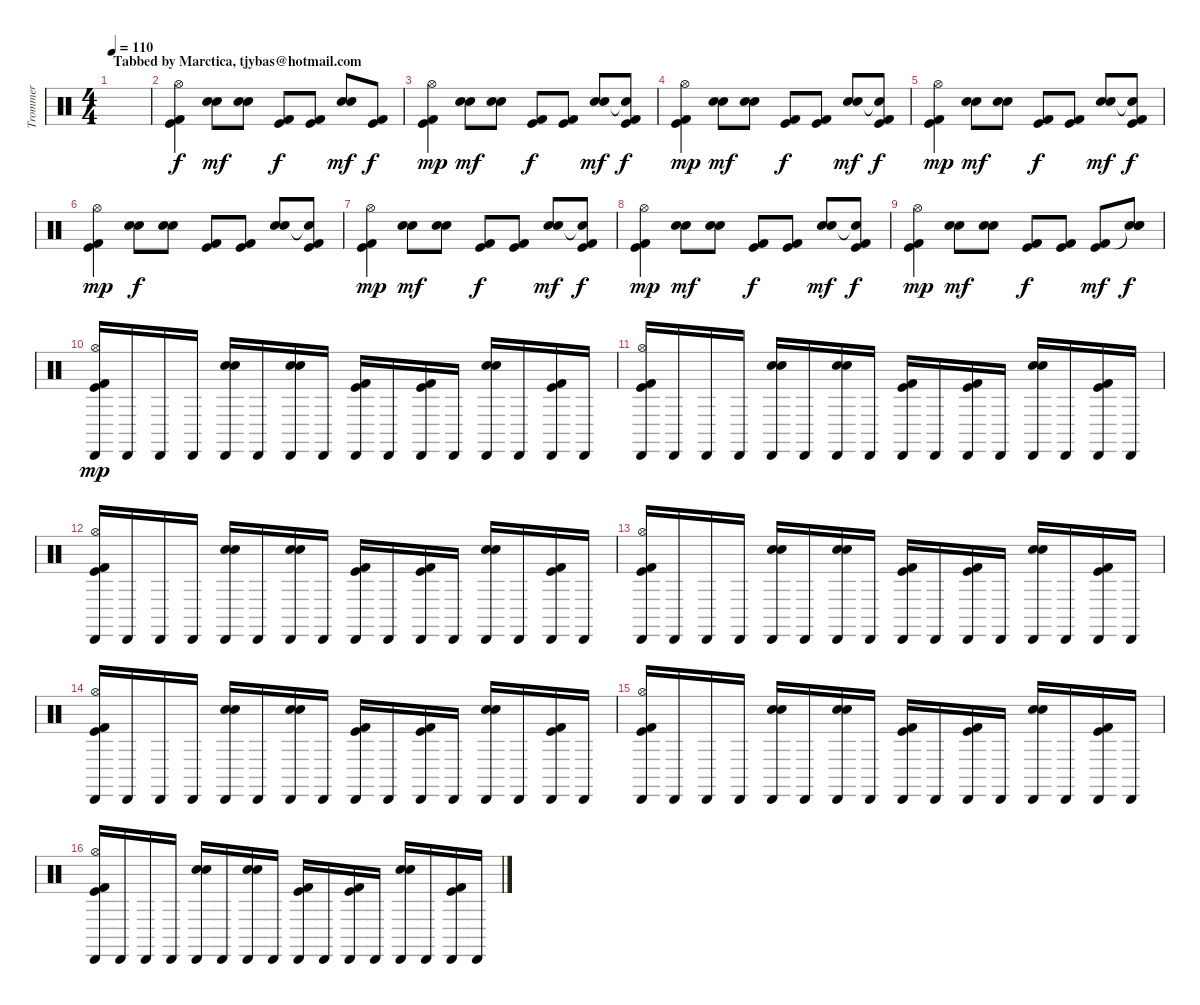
\track ("Trommer" "Trommer") {instrument percussion}
\staff {score}
\articulation defaults
\ts (4 4)
\section ("" "Tabbed by Marctica, tjybas@hotmail.com")
\tempo 110
\clef neutral
\ks c
|
("Hi-Hat (open)" "Kick (hit)" "Kick (hit) 2").4 ("Electric Snare (hit)" "Snare (hit) 2").8{dy mf} ("Snare (hit) 2" "Electric Snare (hit)").8 ("Kick (hit) 2" "Kick (hit)").8{dy f} ("Kick (hit)" "Kick (hit) 2").8 ("Snare (hit) 2" "Electric Snare (hit)").8{dy mf} ("Kick (hit)" "Kick (hit) 2").8{dy f} |
("Hi-Hat (open)" "Kick (hit)" "Kick (hit) 2").4{dy mp} ("Electric Snare (hit)" "Snare (hit) 2").8{dy mf} ("Snare (hit) 2" "Electric Snare (hit)").8 ("Kick (hit) 2" "Kick (hit)").8{dy f} ("Kick (hit)" "Kick (hit) 2").8 ("Snare (hit) 2" "Electric Snare (hit)").8{dy mf} ("Snare (hit)"{t} "Kick (hit)" "Kick (hit) 2").8{dy f} |
("Hi-Hat (open)" "Kick (hit)" "Kick (hit) 2").4{dy mp} ("Electric Snare (hit)" "Snare (hit) 2").8{dy mf} ("Snare (hit) 2" "Electric Snare (hit)").8 ("Kick (hit) 2" "Kick (hit)").8{dy f} ("Kick (hit)" "Kick (hit) 2").8 ("Snare (hit) 2" "Electric Snare (hit)").8{dy mf} ("Snare (hit)"{t} "Kick (hit)" "Kick (hit) 2").8{dy f} |
("Hi-Hat (open)" "Kick (hit)" "Kick (hit) 2").4{dy mp} ("Electric Snare (hit)" "Snare (hit) 2").8{dy mf} ("Snare (hit) 2" "Electric Snare (hit)").8 ("Kick (hit) 2" "Kick (hit)").8{dy f} ("Kick (hit)" "Kick (hit) 2").8 ("Snare (hit) 2" "Electric Snare (hit)").8{dy mf} ("Snare (hit)"{t} "Kick (hit)" "Kick (hit) 2").8{dy f} |
("Hi-Hat (open)" "Kick (hit)" "Kick (hit) 2").4{dy mp} ("Electric Snare (hit)" "Snare (hit) 2").8{dy f} ("Snare (hit) 2" "Electric Snare (hit)").8 ("Kick (hit) 2" "Kick (hit)").8 ("Kick (hit)" "Kick (hit) 2").8 ("Snare (hit) 2" "Electric Snare (hit)").8 ("Snare (hit)"{t} "Kick (hit)" "Kick (hit) 2").8 |
("Hi-Hat (open)" "Kick (hit)" "Kick (hit) 2").4{dy mp} ("Electric Snare (hit)" "Snare (hit) 2").8{dy mf} ("Snare (hit) 2" "Electric Snare (hit)").8 ("Kick (hit) 2" "Kick (hit)").8{dy f} ("Kick (hit)" "Kick (hit) 2").8 ("Snare (hit) 2" "Electric Snare (hit)").8{dy mf} ("Snare (hit)"{t} "Kick (hit)" "Kick (hit) 2").8{dy f} |
("Hi-Hat (open)" "Kick (hit)" "Kick (hit) 2").4{dy mp} ("Electric Snare (hit)" "Snare (hit) 2").8{dy mf} ("Snare (hit) 2" "Electric Snare (hit)").8 ("Kick (hit) 2" "Kick (hit)").8{dy f} ("Kick (hit)" "Kick (hit) 2").8 ("Snare (hit) 2" "Electric Snare (hit)").8{dy mf} ("Snare (hit)"{t} "Kick (hit)" "Kick (hit) 2").8{dy f} |
("Hi-Hat (open)" "Kick (hit)" "Kick (hit) 2").4{dy mp} ("Electric Snare (hit)" "Snare (hit) 2").8{dy mf} ("Snare (hit) 2" "Electric Snare (hit)").8 ("Kick (hit) 2" "Kick (hit)").8{dy f} ("Kick (hit)" "Kick (hit) 2").8 ("Kick (hit) 2" "Kick (hit)").8{dy mf} ("Snare (hit)"{t} "Snare (hit) 2" "Electric Snare (hit)").8{dy f} |
("Cabasa (hit)" "Hi-Hat (open)" "Kick (hit)" "Kick (hit) 2").16{dy mp} "Cabasa (hit)".16 "Cabasa (hit)".16 "Cabasa (hit)".16 ("Cabasa (hit)" "Snare (hit) 2" "Electric Snare (hit)").16 "Cabasa (hit)".16 ("Cabasa (hit)" "Snare (hit) 2" "Electric Snare (hit)").16 "Cabasa (hit)".16 ("Cabasa (hit)" "Kick (hit)" "Kick (hit) 2").16 "Cabasa (hit)".16 ("Cabasa (hit)" "Kick (hit) 2" "Kick (hit)").16 "Cabasa (hit)".16 ("Cabasa (hit)" "Snare (hit) 2" "Electric Snare (hit)").16 "Cabasa (hit)".16 ("Cabasa (hit)" "Kick (hit) 2" "Kick (hit)").16 "Cabasa (hit)".16 |
("Cabasa (hit)" "Hi-Hat (open)" "Kick (hit)" "Kick (hit) 2").16 "Cabasa (hit)".16 "Cabasa (hit)".16 "Cabasa (hit)".16 ("Cabasa (hit)" "Snare (hit) 2" "Electric Snare (hit)").16 "Cabasa (hit)".16 ("Cabasa (hit)" "Snare (hit) 2" "Electric Snare (hit)").16 "Cabasa (hit)".16 ("Cabasa (hit)" "Kick (hit)" "Kick (hit) 2").16 "Cabasa (hit)".16 ("Cabasa (hit)" "Kick (hit) 2" "Kick (hit)").16 "Cabasa (hit)".16 ("Cabasa (hit)" "Snare (hit) 2" "Electric Snare (hit)").16 "Cabasa (hit)".16 ("Cabasa (hit)" "Kick (hit) 2" "Kick (hit)").16 "Cabasa (hit)".16 |
("Cabasa (hit)" "Hi-Hat (open)" "Kick (hit)" "Kick (hit) 2").16 "Cabasa (hit)".16 "Cabasa (hit)".16 "Cabasa (hit)".16 ("Cabasa (hit)" "Snare (hit) 2" "Electric Snare (hit)").16 "Cabasa (hit)".16 ("Cabasa (hit)" "Snare (hit) 2" "Electric Snare (hit)").16 "Cabasa (hit)".16 ("Cabasa (hit)" "Kick (hit)" "Kick (hit) 2").16 "Cabasa (hit)".16 ("Cabasa (hit)" "Kick (hit) 2" "Kick (hit)").16 "Cabasa (hit)".16 ("Cabasa (hit)" "Snare (hit) 2" "Electric Snare (hit)").16 "Cabasa (hit)".16 ("Cabasa (hit)" "Kick (hit) 2" "Kick (hit)").16 "Cabasa (hit)".16 |
("Cabasa (hit)" "Hi-Hat (open)" "Kick (hit)" "Kick (hit) 2").16 "Cabasa (hit)".16 "Cabasa (hit)".16 "Cabasa (hit)".16 ("Cabasa (hit)" "Snare (hit) 2" "Electric Snare (hit)").16 "Cabasa (hit)".16 ("Cabasa (hit)" "Snare (hit) 2" "Electric Snare (hit)").16 "Cabasa (hit)".16 ("Cabasa (hit)" "Kick (hit)" "Kick (hit) 2").16 "Cabasa (hit)".16 ("Cabasa (hit)" "Kick (hit) 2" "Kick (hit)").16 "Cabasa (hit)".16 ("Cabasa (hit)" "Snare (hit) 2" "Electric Snare (hit)").16 "Cabasa (hit)".16 ("Cabasa (hit)" "Kick (hit) 2" "Kick (hit)").16 "Cabasa (hit)".16 |
("Cabasa (hit)" "Hi-Hat (open)" "Kick (hit)" "Kick (hit) 2").16 "Cabasa (hit)".16 "Cabasa (hit)".16 "Cabasa (hit)".16 ("Cabasa (hit)" "Snare (hit) 2" "Electric Snare (hit)").16 "Cabasa (hit)".16 ("Cabasa (hit)" "Snare (hit) 2" "Electric Snare (hit)").16 "Cabasa (hit)".16 ("Cabasa (hit)" "Kick (hit)" "Kick (hit) 2").16 "Cabasa (hit)".16 ("Cabasa (hit)" "Kick (hit) 2" "Kick (hit)").16 "Cabasa (hit)".16 ("Cabasa (hit)" "Snare (hit) 2" "Electric Snare (hit)").16 "Cabasa (hit)".16 ("Cabasa (hit)" "Kick (hit) 2" "Kick (hit)").16 "Cabasa (hit)".16 |
("Cabasa (hit)" "Hi-Hat (open)" "Kick (hit)" "Kick (hit) 2").16 "Cabasa (hit)".16 "Cabasa (hit)".16 "Cabasa (hit)".16 ("Cabasa (hit)" "Snare (hit) 2" "Electric Snare (hit)").16 "Cabasa (hit)".16 ("Cabasa (hit)" "Snare (hit) 2" "Electric Snare (hit)").16 "Cabasa (hit)".16 ("Cabasa (hit)" "Kick (hit)" "Kick (hit) 2").16 "Cabasa (hit)".16 ("Cabasa (hit)" "Kick (hit) 2" "Kick (hit)").16 "Cabasa (hit)".16 ("Cabasa (hit)" "Snare (hit) 2" "Electric Snare (hit)").16 "Cabasa (hit)".16 ("Cabasa (hit)" "Kick (hit) 2" "Kick (hit)").16 "Cabasa (hit)".16 |
("Cabasa (hit)" "Hi-Hat (open)" "Kick (hit)" "Kick (hit) 2").16 "Cabasa (hit)".16 "Cabasa (hit)".16 "Cabasa (hit)".16 ("Cabasa (hit)" "Snare (hit) 2" "Electric Snare (hit)").16 "Cabasa (hit)".16 ("Cabasa (hit)" "Snare (hit) 2" "Electric Snare (hit)").16 "Cabasa (hit)".16 ("Cabasa (hit)" "Kick (hit)" "Kick (hit) 2").16 "Cabasa (hit)".16 ("Cabasa (hit)" "Kick (hit) 2" "Kick (hit)").16 "Cabasa (hit)".16 ("Cabasa (hit)" "Snare (hit) 2" "Electric Snare (hit)").16 "Cabasa (hit)".16 ("Cabasa (hit)" "Kick (hit) 2" "Kick (hit)").16 "Cabasa (hit)".16
